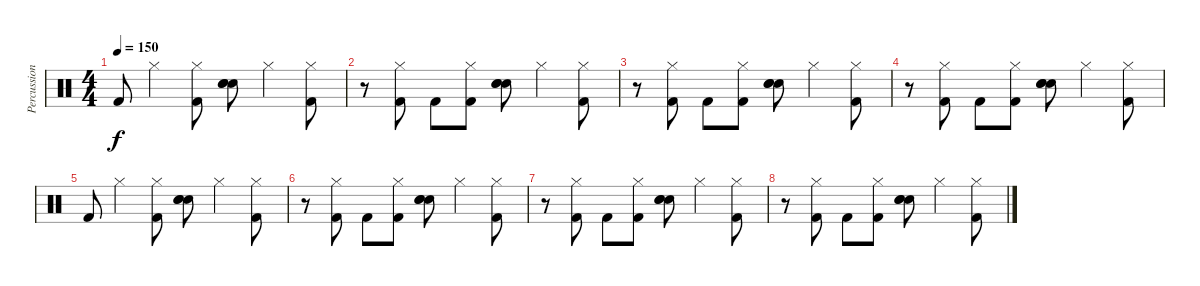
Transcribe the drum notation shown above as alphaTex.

\track ("Percussion" "Percussion") {instrument percussion}
\staff {score}
\articulation defaults
\ts (4 4)
\tempo 150
\clef neutral
\ks c "Kick (hit) 2".8{dy f} "Hi-Hat (closed)".4
("Hi-Hat (closed)" "Kick (hit) 2").8 ("Hand Clap (hit)" "Electric Snare (hit)" "Snare (hit) 2").8 "Hi-Hat (closed)".4 ("Hi-Hat (closed)" "Kick (hit) 2").8 |
r.8 ("Hi-Hat (closed)" "Kick (hit) 2").8 "Kick (hit) 2".8 ("Hi-Hat (closed)" "Kick (hit) 2").8 ("Hand Clap (hit)" "Electric Snare (hit)" "Snare (hit) 2").8 "Hi-Hat (closed)".4 ("Hi-Hat (closed)" "Kick (hit) 2").8 |
r.8 ("Hi-Hat (closed)" "Kick (hit) 2").8 "Kick (hit) 2".8 ("Hi-Hat (closed)" "Kick (hit) 2").8 ("Hand Clap (hit)" "Electric Snare (hit)" "Snare (hit) 2").8 "Hi-Hat (closed)".4 ("Hi-Hat (closed)" "Kick (hit) 2").8 |
r.8 ("Hi-Hat (closed)" "Kick (hit) 2").8 "Kick (hit) 2".8 ("Hi-Hat (closed)" "Kick (hit) 2").8 ("Hand Clap (hit)" "Electric Snare (hit)" "Snare (hit) 2").8 "Hi-Hat (closed)".4 ("Hi-Hat (closed)" "Kick (hit) 2").8 |
"Kick (hit) 2".8 "Hi-Hat (closed)".4 ("Hi-Hat (closed)" "Kick (hit) 2").8 ("Hand Clap (hit)" "Electric Snare (hit)" "Snare (hit) 2").8 "Hi-Hat (closed)".4 ("Hi-Hat (closed)" "Kick (hit) 2").8 |
r.8 ("Hi-Hat (closed)" "Kick (hit) 2").8 "Kick (hit) 2".8 ("Hi-Hat (closed)" "Kick (hit) 2").8 ("Hand Clap (hit)" "Electric Snare (hit)" "Snare (hit) 2").8 "Hi-Hat (closed)".4 ("Hi-Hat (closed)" "Kick (hit) 2").8 |
r.8 ("Hi-Hat (closed)" "Kick (hit) 2").8 "Kick (hit) 2".8 ("Hi-Hat (closed)" "Kick (hit) 2").8 ("Hand Clap (hit)" "Electric Snare (hit)" "Snare (hit) 2").8 "Hi-Hat (closed)".4 ("Hi-Hat (closed)" "Kick (hit) 2").8 |
r.8 ("Hi-Hat (closed)" "Kick (hit) 2").8 "Kick (hit) 2".8 ("Hi-Hat (closed)" "Kick (hit) 2").8 ("Hand Clap (hit)" "Electric Snare (hit)" "Snare (hit) 2").8 "Hi-Hat (closed)".4 ("Hi-Hat (closed)" "Kick (hit) 2").8
